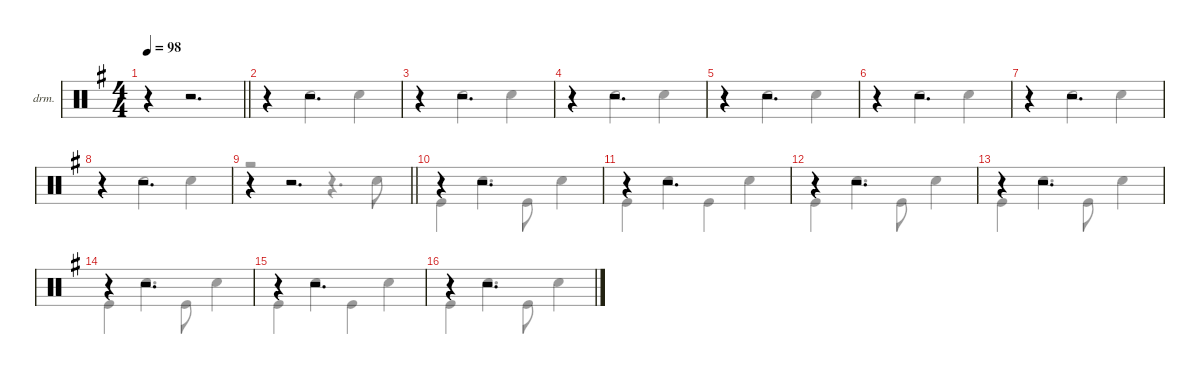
\defaultSystemsLayout 4
\hideDynamics
\bracketExtendMode nobrackets
\firstSystemTrackNameOrientation horizontal
\otherSystemsTrackNameOrientation horizontal
\track ("Percussion" "drm.") {instrument percussion}
\staff {score}
\articulation defaults
\voice
\ts (4 4)
\tempo 98
\clef neutral
\barLineRight lightlight
\ks eminor
r.4{dy mf} r.2{d} |
r.4 r.2{d} |
r.4 r.2{d} |
r.4 r.2{d} |
r.4 r.2{d} |
r.4 r.2{d} |
r.4 r.2{d} |
r.4 r.2{d} |
\barLineRight lightlight
r.4 r.2{d} |
r.4 r.2{d} |
r.4 r.2{d} |
r.4 r.2{d} |
r.4 r.2{d} |
r.4 r.2{d} |
r.4 r.2{d} |
r.4 r.2{d}
\voice
\clef neutral
\ottava regular
\simile none
\barLineRight lightlight
\ks eminor
|
r.4 "Snare (hit) 2"{acc forcenatural}.2 "Snare (hit) 2"{acc forcenatural}.4 |
r.4 "Snare (hit) 2"{acc forcenatural}.2 "Snare (hit) 2"{acc forcenatural}.4 |
r.4 "Snare (hit) 2"{acc forcenatural}.2 "Snare (hit) 2"{acc forcenatural}.4 |
r.4 "Snare (hit) 2"{acc forcenatural}.2 "Snare (hit) 2"{acc forcenatural}.4 |
r.4 "Snare (hit) 2"{acc forcenatural}.2 "Snare (hit) 2"{acc forcenatural}.4 |
r.4 "Snare (hit) 2"{acc forcenatural}.2 "Snare (hit) 2"{acc forcenatural}.4 |
r.4 "Snare (hit) 2"{acc forcenatural}.2 "Snare (hit) 2"{acc forcenatural}.4 |
\barLineRight lightlight
r.2 r.4{d} "Snare (hit) 2"{acc forcenatural}.8{dy f} |
"Kick (hit)"{acc forcenatural}.4{dy mf} "Snare (hit) 2"{acc forcenatural}.4{d} "Kick (hit)"{acc forcenatural}.8 "Snare (hit) 2"{acc forcenatural}.4 |
"Kick (hit)"{acc forcenatural}.4 "Snare (hit) 2"{acc forcenatural}.4 "Kick (hit)"{acc forcenatural}.4 "Snare (hit) 2"{acc forcenatural}.4 |
"Kick (hit)"{acc forcenatural}.4 "Snare (hit) 2"{acc forcenatural}.4{d} "Kick (hit)"{acc forcenatural}.8 "Snare (hit) 2"{acc forcenatural}.4 |
"Kick (hit)"{acc forcenatural}.4 "Snare (hit) 2"{acc forcenatural}.4{d} "Kick (hit)"{acc forcenatural}.8 "Snare (hit) 2"{acc forcenatural}.4 |
"Kick (hit)"{acc forcenatural}.4 "Snare (hit) 2"{acc forcenatural}.4{d} "Kick (hit)"{acc forcenatural}.8 "Snare (hit) 2"{acc forcenatural}.4 |
"Kick (hit)"{acc forcenatural}.4 "Snare (hit) 2"{acc forcenatural}.4 "Kick (hit)"{acc forcenatural}.4 "Snare (hit) 2"{acc forcenatural}.4 |
"Kick (hit)"{acc forcenatural}.4 "Snare (hit) 2"{acc forcenatural}.4{d} "Kick (hit)"{acc forcenatural}.8 "Snare (hit) 2"{acc forcenatural}.4
